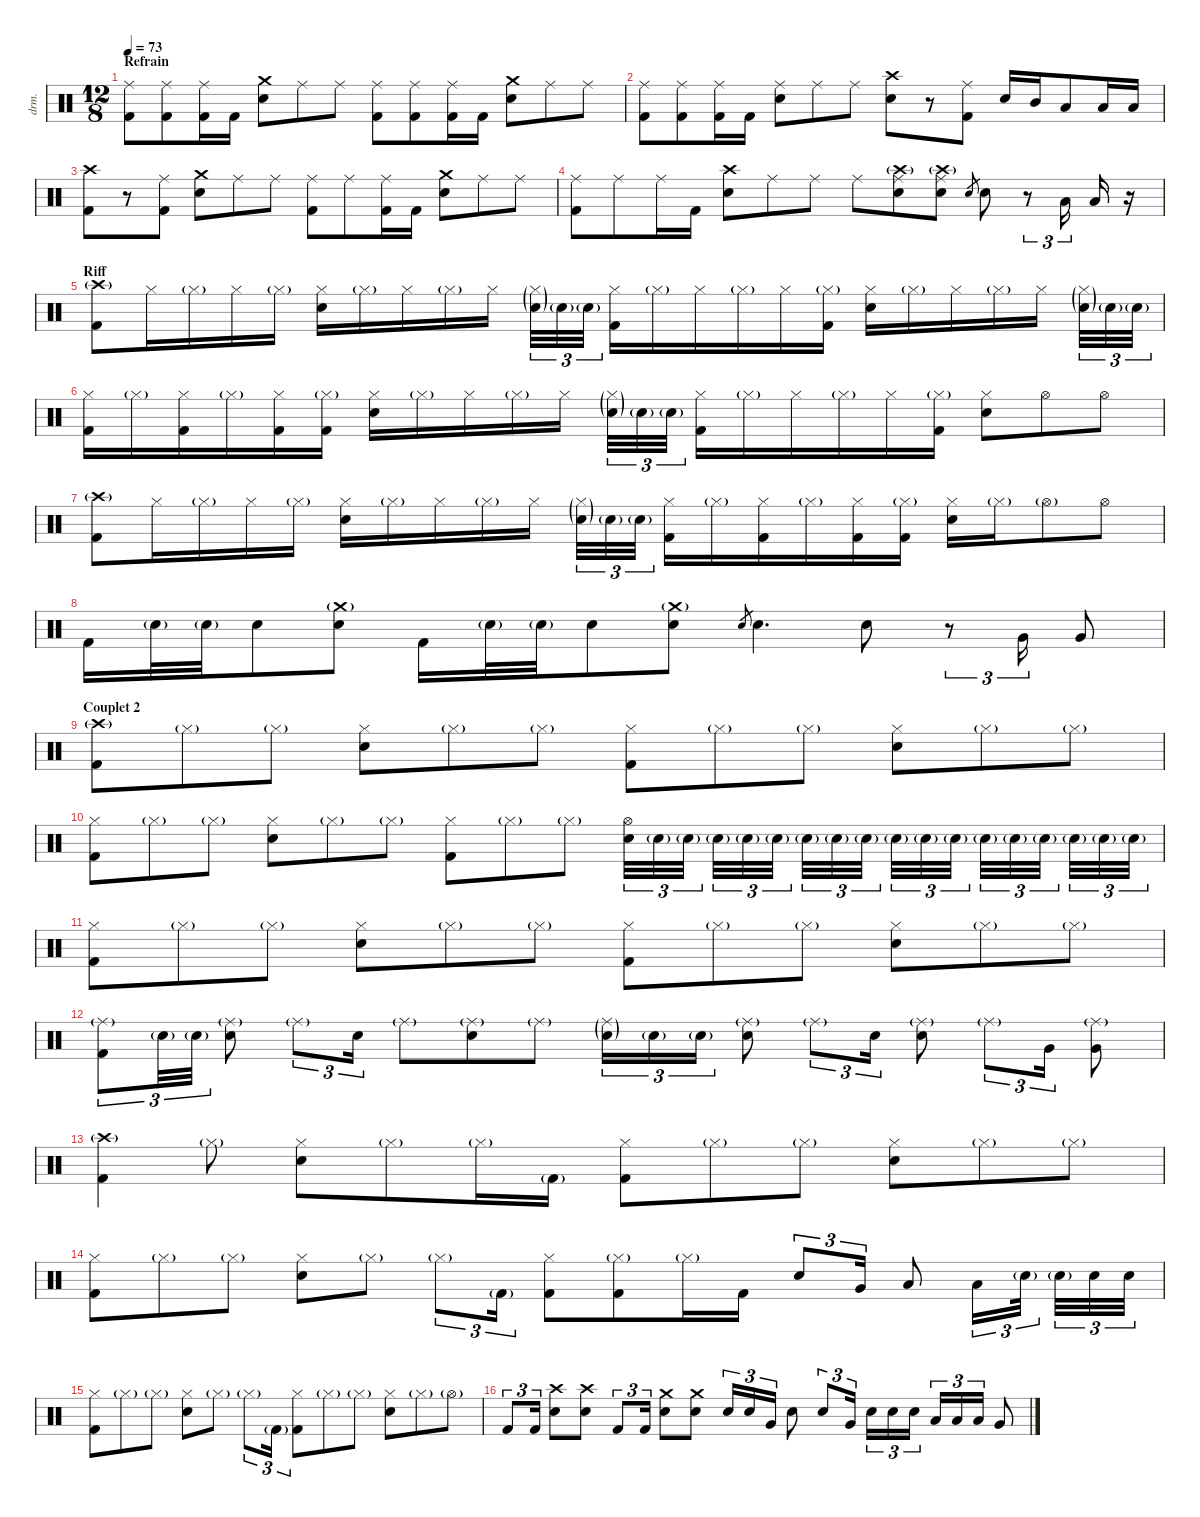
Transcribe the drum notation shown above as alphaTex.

\defaultSystemsLayout 4
\hideDynamics
\bracketExtendMode nobrackets
\otherSystemsTrackNameOrientation horizontal
\track ("Drums" "drm.") {instrument percussion}
\staff {score}
\articulation defaults
\ts (12 8)
\section ("" "Refrain")
\tempo 73
\clef neutral
\ks c
("Ride (middle)" "Kick (hit) 2").8{dy f beam Down} ("Ride (middle)" "Kick (hit) 2").8{beam Down} ("Ride (middle)" "Kick (hit) 2").16{beam Down} "Kick (hit) 2".16{beam Down} ("Crash medium (hit)" "Snare (hit) 2").8{beam Down} "Ride (middle)".8{beam Down} "Ride (middle)".8{beam Down} ("Ride (middle)" "Kick (hit) 2").8{beam Down} ("Ride (middle)" "Kick (hit) 2").8{beam Down} ("Ride (middle)" "Kick (hit) 2").16{beam Down} "Kick (hit) 2".16{beam Down} ("Crash medium (hit)" "Snare (hit) 2").8{beam Down} "Ride (middle)".8{beam Down} "Ride (middle)".8{beam Down} |
("Ride (middle)" "Kick (hit) 2").8{beam Down} ("Ride (middle)" "Kick (hit) 2").8{beam Down} ("Ride (middle)" "Kick (hit) 2").16{beam Down} "Kick (hit) 2".16{beam Down} ("Snare (hit) 2" "Ride (middle)").8{beam Down} "Ride (middle)".8{beam Down} "Ride (middle)".8{beam Down} ("Snare (hit) 2" "Crash high (hit)").8{beam Down} r.8{beam Down} ("Ride (middle)" "Kick (hit) 2").8{beam Down} "Snare (hit) 2".16{beam Up} "Mid Tom (hit)".16{beam Up} "Low Tom (hit)".8{beam Up} "Low Tom (hit)".16{beam Up} "Low Tom (hit)".16{beam Up} |
("Crash high (hit)" "Kick (hit) 2").8{beam Down} r.8{beam Down} ("Ride (middle)" "Kick (hit) 2").8{beam Down} ("Crash medium (hit)" "Snare (hit) 2").8{beam Down} "Ride (middle)".8{beam Down} "Ride (middle)".8{beam Down} ("Ride (middle)" "Kick (hit) 2").8{beam Down} "Ride (middle)".8{beam Down} ("Ride (middle)" "Kick (hit) 2").16{beam Down} "Kick (hit) 2".16{beam Down} ("Crash medium (hit)" "Snare (hit) 2").8{beam Down} "Ride (middle)".8{beam Down} "Ride (middle)".8{beam Down} |
("Ride (middle)" "Kick (hit) 2").8{beam Down} "Ride (middle)".8{beam Down} "Ride (middle)".16{beam Down} "Kick (hit) 2".16{beam Down} ("Snare (hit) 2" "Crash high (hit)").8{beam Down} "Ride (middle)".8{beam Down} "Ride (middle)".8{beam Down} "Ride (middle)".8{beam Down} ("Snare (hit) 2" "Crash high (hit)"{g} "Ride (middle)").8{beam Down} ("Snare (hit) 2" "Crash high (hit)"{g} "Ride (middle)").8{beam Down} "Electric Snare (hit)".8{gr dy mf beam Up} "Snare (hit) 2".8{dy f beam Down} r.8{tu (3 2) beam Down} "Low Tom (hit)".16{tu (3 2) beam Up} "Low Tom (hit)".16{beam Up} r.16{beam Up} |
\section ("" "Riff")
("Crash high (hit)"{g} "Kick (hit) 2").8{beam Down} "Hi-Hat (closed)".16{beam Down} "Hi-Hat (closed)"{g}.16{beam Down} "Hi-Hat (closed)".16{beam Down} "Hi-Hat (closed)"{g}.16{beam Down} ("Hi-Hat (closed)" "Snare (hit) 2").16{beam Down} "Hi-Hat (closed)"{g}.16{beam Down} "Hi-Hat (closed)".16{beam Down} "Hi-Hat (closed)"{g}.16{beam Down} "Hi-Hat (closed)".16{beam Down} ("Hi-Hat (closed)"{g} "Snare (hit) 2"{g}).32{tu (3 2) beam Down} "Snare (hit) 2"{g}.32{tu (3 2) beam Down} "Snare (hit) 2"{g}.32{tu (3 2) beam Down} ("Hi-Hat (closed)" "Kick (hit) 2").16{beam Down} "Hi-Hat (closed)"{g}.16{beam Down} "Hi-Hat (closed)".16{beam Down} "Hi-Hat (closed)"{g}.16{beam Down} "Hi-Hat (closed)".16{beam Down} ("Hi-Hat (closed)"{g} "Kick (hit) 2").16{beam Down} ("Hi-Hat (closed)" "Snare (hit) 2").16{beam Down} "Hi-Hat (closed)"{g}.16{beam Down} "Hi-Hat (closed)".16{beam Down} "Hi-Hat (closed)"{g}.16{beam Down} "Hi-Hat (closed)".16{beam Down} ("Hi-Hat (closed)"{g} "Snare (hit) 2"{g}).32{tu (3 2) beam Down} "Snare (hit) 2"{g}.32{tu (3 2) beam Down} "Snare (hit) 2"{g}.32{tu (3 2) beam Down} |
("Hi-Hat (closed)" "Kick (hit) 2").16{beam Down} "Hi-Hat (closed)"{g}.16{beam Down} ("Hi-Hat (closed)" "Kick (hit) 2").16{beam Down} "Hi-Hat (closed)"{g}.16{beam Down} ("Hi-Hat (closed)" "Kick (hit) 2").16{beam Down} ("Hi-Hat (closed)"{g} "Kick (hit) 2").16{beam Down} ("Hi-Hat (closed)" "Snare (hit) 2").16{beam Down} "Hi-Hat (closed)"{g}.16{beam Down} "Hi-Hat (closed)".16{beam Down} "Hi-Hat (closed)"{g}.16{beam Down} "Hi-Hat (closed)".16{beam Down} ("Hi-Hat (closed)"{g} "Snare (hit) 2"{g}).32{tu (3 2) beam Down} "Snare (hit) 2"{g}.32{tu (3 2) beam Down} "Snare (hit) 2"{g}.32{tu (3 2) beam Down} ("Hi-Hat (closed)" "Kick (hit) 2").16{beam Down} "Hi-Hat (closed)"{g}.16{beam Down} "Hi-Hat (closed)".16{beam Down} "Hi-Hat (closed)"{g}.16{beam Down} "Hi-Hat (closed)".16{beam Down} ("Hi-Hat (closed)"{g} "Kick (hit) 2").16{beam Down} ("Hi-Hat (closed)" "Snare (hit) 2").8{beam Down} "Hi-Hat (open)".8{beam Down} "Hi-Hat (open)".8{beam Down} |
("Crash high (hit)"{g} "Kick (hit) 2").8{beam Down} "Hi-Hat (closed)".16{beam Down} "Hi-Hat (closed)"{g}.16{beam Down} "Hi-Hat (closed)".16{beam Down} "Hi-Hat (closed)"{g}.16{beam Down} ("Hi-Hat (closed)" "Snare (hit) 2").16{beam Down} "Hi-Hat (closed)"{g}.16{beam Down} "Hi-Hat (closed)".16{beam Down} "Hi-Hat (closed)"{g}.16{beam Down} "Hi-Hat (closed)".16{beam Down} ("Hi-Hat (closed)"{g} "Snare (hit) 2"{g}).32{tu (3 2) beam Down} "Snare (hit) 2"{g}.32{tu (3 2) beam Down} "Snare (hit) 2"{g}.32{tu (3 2) beam Down} ("Hi-Hat (closed)" "Kick (hit) 2").16{beam Down} "Hi-Hat (closed)"{g}.16{beam Down} ("Hi-Hat (closed)" "Kick (hit) 2").16{beam Down} "Hi-Hat (closed)"{g}.16{beam Down} ("Hi-Hat (closed)" "Kick (hit) 2").16{beam Down} ("Hi-Hat (closed)"{g} "Kick (hit) 2").16{beam Down} ("Hi-Hat (closed)" "Snare (hit) 2").16{beam Down} "Hi-Hat (closed)"{g}.16{beam Down} "Hi-Hat (open)"{g}.8{beam Down} "Hi-Hat (open)".8{beam Down} |
"Kick (hit) 2".16{beam Down} "Snare (hit) 2"{g}.32{beam Down} "Snare (hit) 2"{g}.32{beam Down} "Snare (hit) 2".8{beam Down} ("Crash medium (hit)"{g} "Snare (hit) 2").8{beam Down} "Kick (hit) 2".16{beam Down} "Snare (hit) 2"{g}.32{beam Down} "Snare (hit) 2"{g}.32{beam Down} "Snare (hit) 2".8{beam Down} ("Crash medium (hit)"{g} "Snare (hit) 2").8{beam Down} "Electric Snare (hit)".8{gr dy mf beam Up} "Snare (hit) 2".4{d dy f beam Down} "Snare (hit) 2".8{beam Down} r.8{tu (3 2) beam Down} "Very Low Tom (hit)".16{tu (3 2) beam Up} "Very Low Tom (hit)".8{beam Up} |
\section ("" "Couplet 2")
("Crash high (hit)"{g} "Kick (hit) 2").8{beam Down} "Hi-Hat (closed)"{g}.8{beam Down} "Hi-Hat (closed)"{g}.8{beam Down} ("Hi-Hat (closed)" "Snare (hit) 2").8{beam Down} "Hi-Hat (closed)"{g}.8{beam Down} "Hi-Hat (closed)"{g}.8{beam Down} ("Hi-Hat (closed)" "Kick (hit) 2").8{beam Down} "Hi-Hat (closed)"{g}.8{beam Down} "Hi-Hat (closed)"{g}.8{beam Down} ("Hi-Hat (closed)" "Snare (hit) 2").8{beam Down} "Hi-Hat (closed)"{g}.8{beam Down} "Hi-Hat (closed)"{g}.8{beam Down} |
("Hi-Hat (closed)" "Kick (hit) 2").8{beam Down} "Hi-Hat (closed)"{g}.8{beam Down} "Hi-Hat (closed)"{g}.8{beam Down} ("Hi-Hat (closed)" "Snare (hit) 2").8{beam Down} "Hi-Hat (closed)"{g}.8{beam Down} "Hi-Hat (closed)"{g}.8{beam Down} ("Hi-Hat (closed)" "Kick (hit) 2").8{beam Down} "Hi-Hat (closed)"{g}.8{beam Down} "Hi-Hat (closed)"{g}.8{beam Down} ("Hi-Hat (open)" "Snare (hit) 2").32{tu (3 2) beam Down} "Snare (hit) 2"{g}.32{tu (3 2) dy p beam Down} "Snare (hit) 2"{g}.32{tu (3 2) beam Down} "Snare (hit) 2"{g}.32{tu (3 2) beam Down} "Snare (hit) 2"{g}.32{tu (3 2) dy mp beam Down} "Snare (hit) 2"{g}.32{tu (3 2) beam Down} "Snare (hit) 2"{g}.32{tu (3 2) dy mf beam Down} "Snare (hit) 2"{g}.32{tu (3 2) beam Down} "Snare (hit) 2"{g}.32{tu (3 2) beam Down} "Snare (hit) 2"{g}.32{tu (3 2) dy f beam Down} "Snare (hit) 2"{g}.32{tu (3 2) beam Down} "Snare (hit) 2"{g}.32{tu (3 2) beam Down} "Snare (hit) 2"{g}.32{tu (3 2) dy ff beam Down} "Snare (hit) 2"{g}.32{tu (3 2) beam Down} "Snare (hit) 2"{g}.32{tu (3 2) beam Down} "Snare (hit) 2"{g}.32{tu (3 2) beam Down} "Snare (hit) 2"{g}.32{tu (3 2) dy fff beam Down} "Snare (hit) 2"{g}.32{tu (3 2) beam Down} |
("Hi-Hat (closed)" "Kick (hit) 2").8{dy f beam Down} "Hi-Hat (closed)"{g}.8{beam Down} "Hi-Hat (closed)"{g}.8{beam Down} ("Hi-Hat (closed)" "Snare (hit) 2").8{beam Down} "Hi-Hat (closed)"{g}.8{beam Down} "Hi-Hat (closed)"{g}.8{beam Down} ("Hi-Hat (closed)" "Kick (hit) 2").8{beam Down} "Hi-Hat (closed)"{g}.8{beam Down} "Hi-Hat (closed)"{g}.8{beam Down} ("Hi-Hat (closed)" "Snare (hit) 2").8{beam Down} "Hi-Hat (closed)"{g}.8{beam Down} "Hi-Hat (closed)"{g}.8{beam Down} |
("Ride (middle)"{g} "Kick (hit) 2").8{tu (3 2) beam Down} "Snare (hit) 2"{g}.32{tu (3 2) beam Down} "Snare (hit) 2"{g}.32{tu (3 2) beam Down} ("Snare (hit) 2" "Ride (middle)"{g}).8{beam Down} "Ride (middle)"{g}.8{tu (3 2) beam Down} "Snare (hit) 2".16{tu (3 2) beam Down} "Ride (middle)"{g}.8{beam Down} ("Snare (hit) 2" "Ride (middle)"{g}).8{beam Down} "Ride (middle)"{g}.8{beam Down} ("Snare (hit) 2"{g} "Ride (middle)"{g}).16{tu (3 2) dy mf beam Down} "Snare (hit) 2"{g}.16{tu (3 2) dy f beam Down} "Snare (hit) 2"{g}.16{tu (3 2) dy ff beam Down} ("Snare (hit) 2" "Ride (middle)"{g}).8{dy f beam Down} "Ride (middle)"{g}.8{tu (3 2) beam Down} "Snare (hit) 2".16{tu (3 2) beam Down} ("Snare (hit) 2" "Ride (middle)"{g}).8{beam Down} "Ride (middle)"{g}.8{tu (3 2) beam Down} "Very Low Tom (hit)".16{tu (3 2) beam Down} ("Very Low Tom (hit)" "Ride (middle)"{g}).8{beam Down} |
("Crash high (hit)"{g} "Kick (hit) 2").4{beam Down} "Hi-Hat (closed)"{g}.8{beam Down} ("Hi-Hat (closed)" "Snare (hit) 2").8{beam Down} "Hi-Hat (closed)"{g}.8{beam Down} "Hi-Hat (closed)"{g}.16{beam Down} "Kick (hit) 2"{g}.16{beam Down} ("Hi-Hat (closed)" "Kick (hit) 2").8{beam Down} "Hi-Hat (closed)"{g}.8{beam Down} "Hi-Hat (closed)"{g}.8{beam Down} ("Hi-Hat (closed)" "Snare (hit) 2").8{beam Down} "Hi-Hat (closed)"{g}.8{beam Down} "Hi-Hat (closed)"{g}.8{beam Down} |
("Hi-Hat (closed)" "Kick (hit) 2").8{beam Down} "Hi-Hat (closed)"{g}.8{beam Down} "Hi-Hat (closed)"{g}.8{beam Down} ("Hi-Hat (closed)" "Snare (hit) 2").8{beam Down} "Hi-Hat (closed)"{g}.8{beam Down} "Hi-Hat (closed)"{g}.8{tu (3 2) beam Down} "Kick (hit) 2"{g}.16{tu (3 2) beam Down} ("Hi-Hat (closed)" "Kick (hit) 2").8{beam Down} ("Hi-Hat (closed)"{g} "Kick (hit) 2").8{beam Down} "Hi-Hat (closed)"{g}.16{beam Down} "Kick (hit) 2".16{beam Down} "Snare (hit) 2".8{tu (3 2) beam Up} "Very Low Tom (hit)".16{tu (3 2) beam Up} "Low Floor Tom (hit)".8{beam Up} "Low Floor Tom (hit)".16{tu (3 2) beam Down} "Snare (hit) 2"{g}.32{tu (3 2) dy mf beam Down} "Snare (hit) 2"{g}.32{tu (3 2) dy f beam Down} "Snare (hit) 2".32{tu (3 2) dy mf beam Down} "Snare (hit) 2".32{tu (3 2) dy f beam Down} |
("Hi-Hat (closed)" "Kick (hit) 2").8{beam Down} "Hi-Hat (closed)"{g}.8{beam Down} "Hi-Hat (closed)"{g}.8{beam Down} ("Hi-Hat (closed)" "Snare (hit) 2").8{beam Down} "Hi-Hat (closed)"{g}.8{beam Down} "Hi-Hat (closed)"{g}.8{tu (3 2) beam Down} "Kick (hit) 2"{g}.16{tu (3 2) beam Down} ("Hi-Hat (closed)" "Kick (hit) 2").8{beam Down} "Hi-Hat (closed)"{g}.8{beam Down} "Hi-Hat (closed)"{g}.8{beam Down} ("Hi-Hat (closed)" "Snare (hit) 2").8{beam Down} "Hi-Hat (closed)"{g}.8{beam Down} "Hi-Hat (open)"{g}.8{beam Down} |
"Kick (hit) 2".8{tu (3 2) beam Up} "Kick (hit) 2".16{tu (3 2) beam Up} ("Snare (hit) 2" "Crash high (hit)").8{beam Down} ("Snare (hit) 2" "Crash high (hit)").8{beam Down} "Kick (hit) 2".8{tu (3 2) beam Up} "Kick (hit) 2".16{tu (3 2) beam Up} ("Crash medium (hit)" "Snare (hit) 2").8{beam Down} ("Crash medium (hit)" "Snare (hit) 2").8{beam Down} "Snare (hit) 2".16{tu (3 2) beam Up} "Snare (hit) 2".16{tu (3 2) beam Up} "Very Low Tom (hit)".16{tu (3 2) beam Up} "Snare (hit) 2".8{beam Down} "Snare (hit) 2".8{tu (3 2) beam Up} "Very Low Tom (hit)".16{tu (3 2) beam Up} "Snare (hit) 2".16{tu (3 2) beam Down} "Snare (hit) 2".16{tu (3 2) beam Down} "Snare (hit) 2".16{tu (3 2) beam Down} "Low Tom (hit)".16{tu (3 2) beam Up} "Low Tom (hit)".16{tu (3 2) beam Up} "Low Tom (hit)".16{tu (3 2) beam Up} "Very Low Tom (hit)".8{beam Up}
